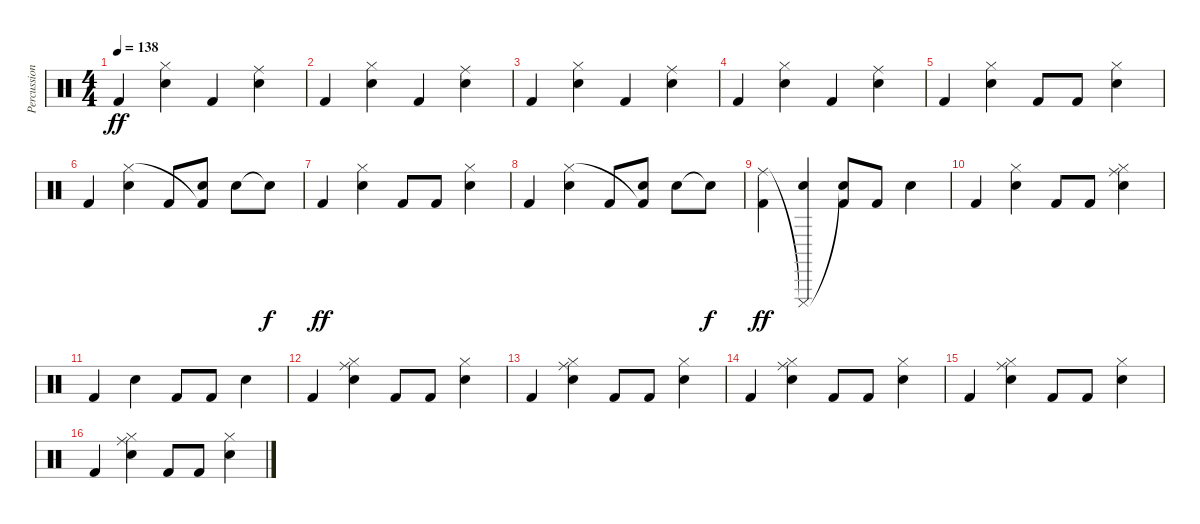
\track ("Percussion" "Percussion") {instrument percussion}
\staff {score}
\articulation defaults
\ts (4 4)
\tempo 138
\clef neutral
\ks c "Kick (hit) 2".4{dy ff}
("Snare (hit) 2" "Hi-Hat (closed)").4 "Kick (hit) 2".4 ("Ride (middle)" "Snare (hit) 2").4 |
"Kick (hit) 2".4 ("Snare (hit) 2" "Hi-Hat (closed)").4 "Kick (hit) 2".4 ("Ride (middle)" "Snare (hit) 2").4 |
"Kick (hit) 2".4 ("Snare (hit) 2" "Hi-Hat (closed)").4 "Kick (hit) 2".4 ("Ride (middle)" "Snare (hit) 2").4 |
"Kick (hit) 2".4 ("Snare (hit) 2" "Hi-Hat (closed)").4 "Kick (hit) 2".4 ("Ride (middle)" "Snare (hit) 2").4 |
"Kick (hit) 2".4 ("Snare (hit) 2" "Hi-Hat (closed)").4 "Kick (hit) 2".8 "Kick (hit) 2".8 ("Snare (hit) 2" "Hi-Hat (closed)").4 |
"Kick (hit) 2".4 ("Snare (hit) 2" "Hi-Hat (closed)").4 "Kick (hit) 2".8 ("Electric Snare (hit)" "Kick (hit) 2"{t}).8 "Electric Snare (hit)".8 "Electric Snare (hit)"{t}.8{dy f} |
"Kick (hit) 2".4{dy ff} ("Snare (hit) 2" "Hi-Hat (closed)").4 "Kick (hit) 2".8 "Kick (hit) 2".8 ("Snare (hit) 2" "Hi-Hat (closed)").4 |
"Kick (hit) 2".4 ("Snare (hit) 2" "Hi-Hat (closed)").4 "Kick (hit) 2".8 ("Electric Snare (hit)" "Kick (hit) 2"{t}).8 "Electric Snare (hit)".8 "Electric Snare (hit)"{t}.8{dy f} |
("Kick (hit) 2" "Ride (middle)").4{dy ff} ("Snare (hit) 2" "Cuica (mute)"{t}).4 ("Kick (hit) 2" "Snare (hit)"{t}).8 "Kick (hit) 2".8 "Snare (hit) 2".4 |
"Kick (hit) 2".4 ("Snare (hit) 2" "Hi-Hat (closed)").4 "Kick (hit) 2".8 "Kick (hit) 2".8 ("Ride (middle)" "Snare (hit) 2" "Hi-Hat (closed)").4 |
"Kick (hit) 2".4 "Snare (hit) 2".4 "Kick (hit) 2".8 "Kick (hit) 2".8 "Snare (hit) 2".4 |
"Kick (hit) 2".4 ("Ride (middle)" "Snare (hit) 2" "Hi-Hat (closed)").4 "Kick (hit) 2".8 "Kick (hit) 2".8 ("Snare (hit) 2" "Hi-Hat (closed)").4 |
"Kick (hit) 2".4 ("Ride (middle)" "Snare (hit) 2" "Hi-Hat (closed)").4 "Kick (hit) 2".8 "Kick (hit) 2".8 ("Snare (hit) 2" "Hi-Hat (closed)").4 |
"Kick (hit) 2".4 ("Ride (middle)" "Snare (hit) 2" "Hi-Hat (closed)").4 "Kick (hit) 2".8 "Kick (hit) 2".8 ("Snare (hit) 2" "Hi-Hat (closed)").4 |
"Kick (hit) 2".4 ("Ride (middle)" "Snare (hit) 2" "Hi-Hat (closed)").4 "Kick (hit) 2".8 "Kick (hit) 2".8 ("Snare (hit) 2" "Hi-Hat (closed)").4 |
"Kick (hit) 2".4 ("Ride (middle)" "Snare (hit) 2" "Hi-Hat (closed)").4 "Kick (hit) 2".8 "Kick (hit) 2".8 ("Snare (hit) 2" "Hi-Hat (closed)").4
